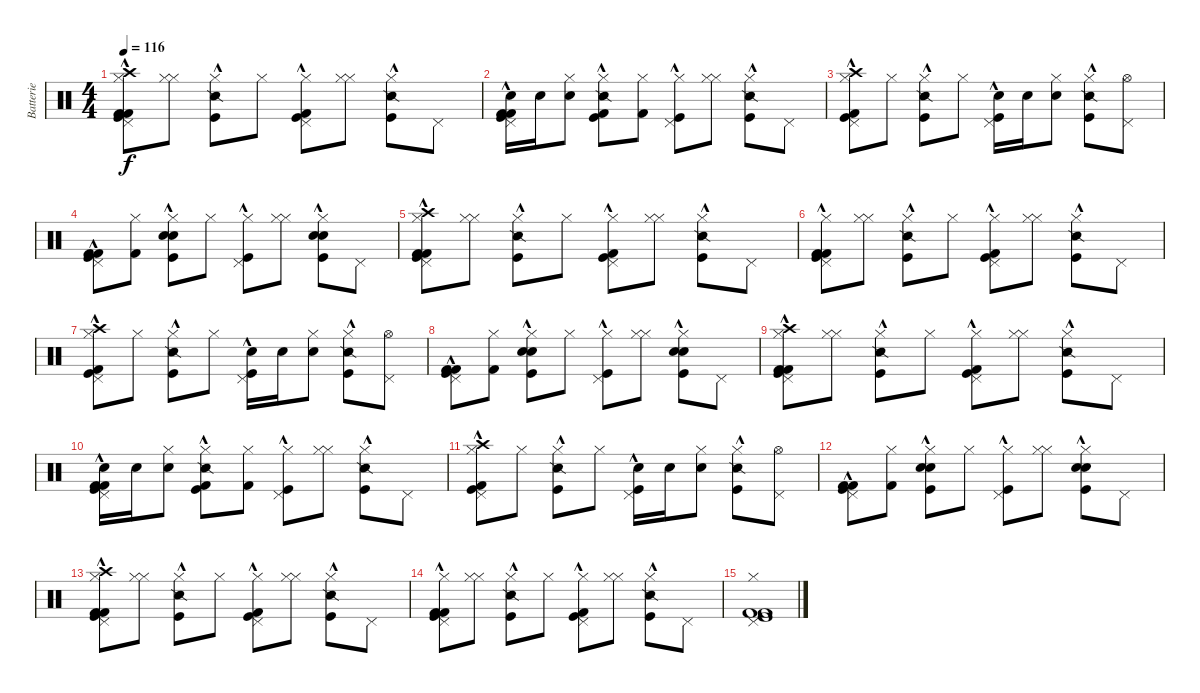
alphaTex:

\track ("Batterie" "Batterie") {instrument percussion}
\staff {score}
\articulation defaults
\ts (4 4)
\tempo 116
\clef neutral
\ks c
("Kick (hit) 2"{hac} "Hi-Hat (closed)" "Kick (hit) 2"{hac} "Pedal Hi-Hat (hit)" "Kick (hit)"{hac} "Crash high (hit)"{hac}).8{dy f} ("Hi-Hat (closed)" "Hi-Hat (closed)").8 ("Snare (side stick) 2"{hac} "Hi-Hat (closed)" "Kick (hit)"{hac}).8 "Hi-Hat (closed)".8 ("Kick (hit) 2"{hac} "Hi-Hat (closed)" "Pedal Hi-Hat (hit)" "Kick (hit)"{hac}).8 ("Hi-Hat (closed)" "Hi-Hat (closed)").8 ("Snare (side stick) 2"{hac} "Hi-Hat (closed)" "Kick (hit)"{hac}).8 "Pedal Hi-Hat (hit)".8 |
("Kick (hit) 2"{hac} "Snare (hit) 2" "Kick (hit) 2"{hac} "Pedal Hi-Hat (hit)" "Kick (hit)"{hac}).16 "Snare (hit) 2".16 ("Electric Snare (hit)" "Hi-Hat (closed)").8 ("Snare (side stick) 2"{hac} "Kick (hit) 2" "Hi-Hat (closed)" "Kick (hit)"{hac}).8 ("Kick (hit) 2" "Hi-Hat (closed)").8 ("Hi-Hat (closed)" "Pedal Hi-Hat (hit)" "Kick (hit)"{hac}).8 ("Hi-Hat (closed)" "Hi-Hat (closed)").8 ("Snare (side stick) 2"{hac} "Hi-Hat (closed)" "Kick (hit)"{hac}).8 "Pedal Hi-Hat (hit)".8 |
("Hi-Hat (closed)" "Kick (hit) 2"{hac} "Pedal Hi-Hat (hit)" "Kick (hit)"{hac} "Crash high (hit)"{hac}).8 "Hi-Hat (closed)".8 ("Snare (side stick) 2"{hac} "Hi-Hat (closed)" "Kick (hit)"{hac}).8 "Hi-Hat (closed)".8 ("Electric Snare (hit)" "Pedal Hi-Hat (hit)" "Kick (hit)"{hac}).16 "Electric Snare (hit)".16 ("Electric Snare (hit)" "Hi-Hat (closed)").8 ("Snare (side stick) 2" "Hi-Hat (closed)" "Kick (hit)"{hac}).8 ("Hi-Hat (open)" "Pedal Hi-Hat (hit)").8 |
("Kick (hit) 2" "Kick (hit) 2" "Pedal Hi-Hat (hit)" "Kick (hit)"{hac}).8 ("Kick (hit) 2" "Hi-Hat (closed)").8 ("Snare (hit) 2"{hac} "Electric Snare (hit)"{hac} "Hi-Hat (closed)" "Kick (hit)"{hac}).8 "Hi-Hat (closed)".8 ("Hi-Hat (closed)" "Pedal Hi-Hat (hit)" "Kick (hit)"{hac}).8 ("Hi-Hat (closed)" "Hi-Hat (closed)").8 ("Snare (hit) 2"{hac} "Electric Snare (hit)"{hac} "Hi-Hat (closed)" "Kick (hit)"{hac}).8 "Pedal Hi-Hat (hit)".8 |
("Kick (hit) 2"{hac} "Hi-Hat (closed)" "Kick (hit) 2"{hac} "Pedal Hi-Hat (hit)" "Kick (hit)"{hac} "Crash high (hit)"{hac}).8 ("Hi-Hat (closed)" "Hi-Hat (closed)").8 ("Snare (side stick) 2"{hac} "Hi-Hat (closed)" "Kick (hit)"{hac}).8 "Hi-Hat (closed)".8 ("Kick (hit) 2"{hac} "Hi-Hat (closed)" "Pedal Hi-Hat (hit)" "Kick (hit)"{hac}).8 ("Hi-Hat (closed)" "Hi-Hat (closed)").8 ("Snare (side stick) 2"{hac} "Hi-Hat (closed)" "Kick (hit)"{hac}).8 "Pedal Hi-Hat (hit)".8 |
("Kick (hit) 2"{hac} "Hi-Hat (closed)" "Kick (hit) 2"{hac} "Pedal Hi-Hat (hit)" "Kick (hit)"{hac}).8 ("Hi-Hat (closed)" "Hi-Hat (closed)").8 ("Snare (side stick) 2"{hac} "Hi-Hat (closed)" "Kick (hit)"{hac}).8 "Hi-Hat (closed)".8 ("Kick (hit) 2"{hac} "Hi-Hat (closed)" "Pedal Hi-Hat (hit)" "Kick (hit)"{hac}).8 ("Hi-Hat (closed)" "Hi-Hat (closed)").8 ("Snare (side stick) 2"{hac} "Hi-Hat (closed)" "Kick (hit)"{hac}).8 "Pedal Hi-Hat (hit)".8 |
("Hi-Hat (closed)" "Kick (hit) 2"{hac} "Pedal Hi-Hat (hit)" "Kick (hit)"{hac} "Crash high (hit)"{hac}).8 "Hi-Hat (closed)".8 ("Snare (side stick) 2"{hac} "Hi-Hat (closed)" "Kick (hit)"{hac}).8 "Hi-Hat (closed)".8 ("Electric Snare (hit)" "Pedal Hi-Hat (hit)" "Kick (hit)"{hac}).16 "Electric Snare (hit)".16 ("Electric Snare (hit)" "Hi-Hat (closed)").8 ("Snare (side stick) 2" "Hi-Hat (closed)" "Kick (hit)"{hac}).8 ("Hi-Hat (open)" "Pedal Hi-Hat (hit)").8 |
("Kick (hit) 2" "Kick (hit) 2" "Pedal Hi-Hat (hit)" "Kick (hit)"{hac}).8 ("Kick (hit) 2" "Hi-Hat (closed)").8 ("Snare (hit) 2"{hac} "Electric Snare (hit)"{hac} "Hi-Hat (closed)" "Kick (hit)"{hac}).8 "Hi-Hat (closed)".8 ("Hi-Hat (closed)" "Pedal Hi-Hat (hit)" "Kick (hit)"{hac}).8 ("Hi-Hat (closed)" "Hi-Hat (closed)").8 ("Snare (hit) 2"{hac} "Electric Snare (hit)"{hac} "Hi-Hat (closed)" "Kick (hit)"{hac}).8 "Pedal Hi-Hat (hit)".8 |
("Kick (hit) 2"{hac} "Hi-Hat (closed)" "Kick (hit) 2"{hac} "Pedal Hi-Hat (hit)" "Kick (hit)"{hac} "Crash high (hit)"{hac}).8 ("Hi-Hat (closed)" "Hi-Hat (closed)").8 ("Snare (side stick) 2"{hac} "Hi-Hat (closed)" "Kick (hit)"{hac}).8 "Hi-Hat (closed)".8 ("Kick (hit) 2"{hac} "Hi-Hat (closed)" "Pedal Hi-Hat (hit)" "Kick (hit)"{hac}).8 ("Hi-Hat (closed)" "Hi-Hat (closed)").8 ("Snare (side stick) 2"{hac} "Hi-Hat (closed)" "Kick (hit)"{hac}).8 "Pedal Hi-Hat (hit)".8 |
("Kick (hit) 2"{hac} "Snare (hit) 2" "Kick (hit) 2"{hac} "Pedal Hi-Hat (hit)" "Kick (hit)"{hac}).16 "Snare (hit) 2".16 ("Electric Snare (hit)" "Hi-Hat (closed)").8 ("Snare (side stick) 2"{hac} "Kick (hit) 2" "Hi-Hat (closed)" "Kick (hit)"{hac}).8 ("Kick (hit) 2" "Hi-Hat (closed)").8 ("Hi-Hat (closed)" "Pedal Hi-Hat (hit)" "Kick (hit)"{hac}).8 ("Hi-Hat (closed)" "Hi-Hat (closed)").8 ("Snare (side stick) 2"{hac} "Hi-Hat (closed)" "Kick (hit)"{hac}).8 "Pedal Hi-Hat (hit)".8 |
("Hi-Hat (closed)" "Kick (hit) 2"{hac} "Pedal Hi-Hat (hit)" "Kick (hit)"{hac} "Crash high (hit)"{hac}).8 "Hi-Hat (closed)".8 ("Snare (side stick) 2"{hac} "Hi-Hat (closed)" "Kick (hit)"{hac}).8 "Hi-Hat (closed)".8 ("Electric Snare (hit)" "Pedal Hi-Hat (hit)" "Kick (hit)"{hac}).16 "Electric Snare (hit)".16 ("Electric Snare (hit)" "Hi-Hat (closed)").8 ("Snare (side stick) 2" "Hi-Hat (closed)" "Kick (hit)"{hac}).8 ("Hi-Hat (open)" "Pedal Hi-Hat (hit)").8 |
("Kick (hit) 2" "Kick (hit) 2" "Pedal Hi-Hat (hit)" "Kick (hit)"{hac}).8 ("Kick (hit) 2" "Hi-Hat (closed)").8 ("Snare (hit) 2"{hac} "Electric Snare (hit)"{hac} "Hi-Hat (closed)" "Kick (hit)"{hac}).8 "Hi-Hat (closed)".8 ("Hi-Hat (closed)" "Pedal Hi-Hat (hit)" "Kick (hit)"{hac}).8 ("Hi-Hat (closed)" "Hi-Hat (closed)").8 ("Snare (hit) 2"{hac} "Electric Snare (hit)"{hac} "Hi-Hat (closed)" "Kick (hit)"{hac}).8 "Pedal Hi-Hat (hit)".8 |
("Kick (hit) 2"{hac} "Hi-Hat (closed)" "Kick (hit) 2"{hac} "Pedal Hi-Hat (hit)" "Kick (hit)"{hac} "Crash high (hit)"{hac}).8 ("Hi-Hat (closed)" "Hi-Hat (closed)").8 ("Snare (side stick) 2"{hac} "Hi-Hat (closed)" "Kick (hit)"{hac}).8 "Hi-Hat (closed)".8 ("Kick (hit) 2"{hac} "Hi-Hat (closed)" "Pedal Hi-Hat (hit)" "Kick (hit)"{hac}).8 ("Hi-Hat (closed)" "Hi-Hat (closed)").8 ("Snare (side stick) 2"{hac} "Hi-Hat (closed)" "Kick (hit)"{hac}).8 "Pedal Hi-Hat (hit)".8 |
("Kick (hit) 2"{hac} "Hi-Hat (closed)" "Kick (hit) 2"{hac} "Pedal Hi-Hat (hit)" "Kick (hit)"{hac}).8 ("Hi-Hat (closed)" "Hi-Hat (closed)").8 ("Snare (side stick) 2"{hac} "Hi-Hat (closed)" "Kick (hit)"{hac}).8 "Hi-Hat (closed)".8 ("Kick (hit) 2"{hac} "Hi-Hat (closed)" "Pedal Hi-Hat (hit)" "Kick (hit)"{hac}).8 ("Hi-Hat (closed)" "Hi-Hat (closed)").8 ("Snare (side stick) 2"{hac} "Hi-Hat (closed)" "Kick (hit)"{hac}).8 "Pedal Hi-Hat (hit)".8 |
("Kick (hit) 2" "Hi-Hat (closed)" "Kick (hit) 2" "Pedal Hi-Hat (hit)" "Kick (hit)").1
